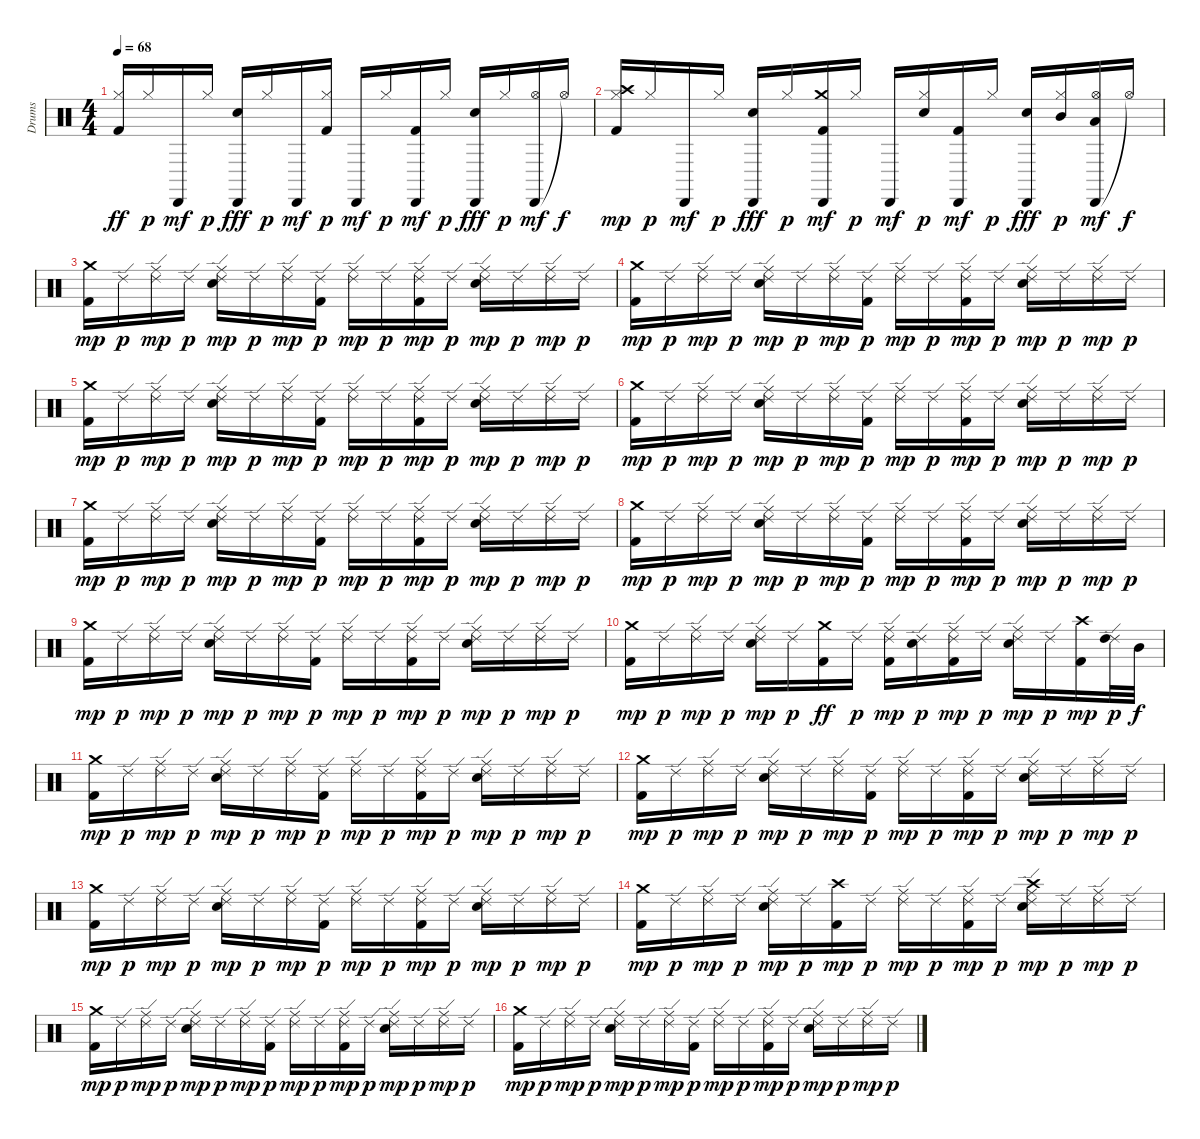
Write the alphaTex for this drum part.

\track ("Drums" "Drums") {instrument percussion}
\staff {score}
\articulation defaults
\ts (4 4)
\tempo 68
\clef neutral
\ks c
("Hi-Hat (closed)" "Kick (hit) 2").16{dy ff} "Hi-Hat (closed)".16{dy p} "Cabasa (hit)".16{dy mf} "Hi-Hat (closed)".16{dy p} ("Cabasa (hit)" "Snare (hit) 2").16{dy fff} "Hi-Hat (closed)".16{dy p} "Cabasa (hit)".16{dy mf} ("Hi-Hat (closed)" "Kick (hit) 2").16{dy p} "Cabasa (hit)".16{dy mf} "Hi-Hat (closed)".16{dy p} ("Cabasa (hit)" "Kick (hit) 2").16{dy mf} "Hi-Hat (closed)".16{dy p} ("Cabasa (hit)" "Snare (hit) 2").16{dy fff} "Hi-Hat (closed)".16{dy p} ("Cabasa (hit)" "Hi-Hat (open)").16{dy mf} "Hi-Hat (open)"{t}.16{dy f} |
("Hi-Hat (closed)" "Kick (hit) 2" "Crash high (hit)").16{dy mp} "Hi-Hat (closed)".16{dy p} "Cabasa (hit)".16{dy mf} "Hi-Hat (closed)".16{dy p} ("Cabasa (hit)" "Snare (hit) 2").16{dy fff} "Hi-Hat (closed)".16{dy p} ("Cabasa (hit)" "Kick (hit) 2" "Crash medium (hit)").16{dy mf} "Hi-Hat (closed)".16{dy p} "Cabasa (hit)".16{dy mf} ("Hi-Hat (closed)" "Snare (hit) 2").16{dy p} ("Cabasa (hit)" "Kick (hit) 2").16{dy mf} "Hi-Hat (closed)".16{dy p} ("Cabasa (hit)" "Snare (hit) 2").16{dy fff} ("Hi-Hat (closed)" "Mid Tom (hit)").16{dy p} ("Cabasa (hit)" "Hi-Hat (open)" "Low Tom (hit)").16{dy mf} "Hi-Hat (open)"{t}.16{dy f} |
("Kick (hit) 2" "Crash medium (hit)").16{dy mp} "Ride (edge) 2".16{dy p} ("Ride (middle)" "Ride (edge) 2").16{dy mp} "Ride (edge) 2".16{dy p} ("Ride (middle)" "Ride (edge) 2" "Snare (hit) 2").16{dy mp} "Ride (edge) 2".16{dy p} ("Ride (middle)" "Ride (edge) 2").16{dy mp} ("Ride (edge) 2" "Kick (hit) 2").16{dy p} ("Ride (middle)" "Ride (edge) 2").16{dy mp} "Ride (edge) 2".16{dy p} ("Ride (middle)" "Ride (edge) 2" "Kick (hit) 2").16{dy mp} "Ride (edge) 2".16{dy p} ("Ride (middle)" "Ride (edge) 2" "Snare (hit) 2").16{dy mp} "Ride (edge) 2".16{dy p} ("Ride (middle)" "Ride (edge) 2").16{dy mp} "Ride (edge) 2".16{dy p} |
("Kick (hit) 2" "Crash medium (hit)").16{dy mp} "Ride (edge) 2".16{dy p} ("Ride (middle)" "Ride (edge) 2").16{dy mp} "Ride (edge) 2".16{dy p} ("Ride (middle)" "Ride (edge) 2" "Snare (hit) 2").16{dy mp} "Ride (edge) 2".16{dy p} ("Ride (middle)" "Ride (edge) 2").16{dy mp} ("Ride (edge) 2" "Kick (hit) 2").16{dy p} ("Ride (middle)" "Ride (edge) 2").16{dy mp} "Ride (edge) 2".16{dy p} ("Ride (middle)" "Ride (edge) 2" "Kick (hit) 2").16{dy mp} "Ride (edge) 2".16{dy p} ("Ride (middle)" "Ride (edge) 2" "Snare (hit) 2").16{dy mp} "Ride (edge) 2".16{dy p} ("Ride (middle)" "Ride (edge) 2").16{dy mp} "Ride (edge) 2".16{dy p} |
("Kick (hit) 2" "Crash medium (hit)").16{dy mp} "Ride (edge) 2".16{dy p} ("Ride (middle)" "Ride (edge) 2").16{dy mp} "Ride (edge) 2".16{dy p} ("Ride (middle)" "Ride (edge) 2" "Snare (hit) 2").16{dy mp} "Ride (edge) 2".16{dy p} ("Ride (middle)" "Ride (edge) 2").16{dy mp} ("Ride (edge) 2" "Kick (hit) 2").16{dy p} ("Ride (middle)" "Ride (edge) 2").16{dy mp} "Ride (edge) 2".16{dy p} ("Ride (middle)" "Ride (edge) 2" "Kick (hit) 2").16{dy mp} "Ride (edge) 2".16{dy p} ("Ride (middle)" "Ride (edge) 2" "Snare (hit) 2").16{dy mp} "Ride (edge) 2".16{dy p} ("Ride (middle)" "Ride (edge) 2").16{dy mp} "Ride (edge) 2".16{dy p} |
("Kick (hit) 2" "Crash medium (hit)").16{dy mp} "Ride (edge) 2".16{dy p} ("Ride (middle)" "Ride (edge) 2").16{dy mp} "Ride (edge) 2".16{dy p} ("Ride (middle)" "Ride (edge) 2" "Snare (hit) 2").16{dy mp} "Ride (edge) 2".16{dy p} ("Ride (middle)" "Ride (edge) 2").16{dy mp} ("Ride (edge) 2" "Kick (hit) 2").16{dy p} ("Ride (middle)" "Ride (edge) 2").16{dy mp} "Ride (edge) 2".16{dy p} ("Ride (middle)" "Ride (edge) 2" "Kick (hit) 2").16{dy mp} "Ride (edge) 2".16{dy p} ("Ride (middle)" "Ride (edge) 2" "Snare (hit) 2").16{dy mp} "Ride (edge) 2".16{dy p} ("Ride (middle)" "Ride (edge) 2").16{dy mp} "Ride (edge) 2".16{dy p} |
("Kick (hit) 2" "Crash medium (hit)").16{dy mp} "Ride (edge) 2".16{dy p} ("Ride (middle)" "Ride (edge) 2").16{dy mp} "Ride (edge) 2".16{dy p} ("Ride (middle)" "Ride (edge) 2" "Snare (hit) 2").16{dy mp} "Ride (edge) 2".16{dy p} ("Ride (middle)" "Ride (edge) 2").16{dy mp} ("Ride (edge) 2" "Kick (hit) 2").16{dy p} ("Ride (middle)" "Ride (edge) 2").16{dy mp} "Ride (edge) 2".16{dy p} ("Ride (middle)" "Ride (edge) 2" "Kick (hit) 2").16{dy mp} "Ride (edge) 2".16{dy p} ("Ride (middle)" "Ride (edge) 2" "Snare (hit) 2").16{dy mp} "Ride (edge) 2".16{dy p} ("Ride (middle)" "Ride (edge) 2").16{dy mp} "Ride (edge) 2".16{dy p} |
("Kick (hit) 2" "Crash medium (hit)").16{dy mp} "Ride (edge) 2".16{dy p} ("Ride (middle)" "Ride (edge) 2").16{dy mp} "Ride (edge) 2".16{dy p} ("Ride (middle)" "Ride (edge) 2" "Snare (hit) 2").16{dy mp} "Ride (edge) 2".16{dy p} ("Ride (middle)" "Ride (edge) 2").16{dy mp} ("Ride (edge) 2" "Kick (hit) 2").16{dy p} ("Ride (middle)" "Ride (edge) 2").16{dy mp} "Ride (edge) 2".16{dy p} ("Ride (middle)" "Ride (edge) 2" "Kick (hit) 2").16{dy mp} "Ride (edge) 2".16{dy p} ("Ride (middle)" "Ride (edge) 2" "Snare (hit) 2").16{dy mp} "Ride (edge) 2".16{dy p} ("Ride (middle)" "Ride (edge) 2").16{dy mp} "Ride (edge) 2".16{dy p} |
("Kick (hit) 2" "Crash medium (hit)").16{dy mp} "Ride (edge) 2".16{dy p} ("Ride (middle)" "Ride (edge) 2").16{dy mp} "Ride (edge) 2".16{dy p} ("Ride (middle)" "Ride (edge) 2" "Snare (hit) 2").16{dy mp} "Ride (edge) 2".16{dy p} ("Ride (middle)" "Ride (edge) 2").16{dy mp} ("Ride (edge) 2" "Kick (hit) 2").16{dy p} ("Ride (middle)" "Ride (edge) 2").16{dy mp} "Ride (edge) 2".16{dy p} ("Ride (middle)" "Ride (edge) 2" "Kick (hit) 2").16{dy mp} "Ride (edge) 2".16{dy p} ("Ride (middle)" "Ride (edge) 2" "Snare (hit) 2").16{dy mp} "Ride (edge) 2".16{dy p} ("Ride (middle)" "Ride (edge) 2").16{dy mp} "Ride (edge) 2".16{dy p} |
("Kick (hit) 2" "Crash medium (hit)").16{dy mp} "Ride (edge) 2".16{dy p} ("Ride (middle)" "Ride (edge) 2").16{dy mp} "Ride (edge) 2".16{dy p} ("Ride (middle)" "Ride (edge) 2" "Snare (hit) 2").16{dy mp} "Ride (edge) 2".16{dy p} ("Crash medium (hit)" "Kick (hit) 2").16{dy ff} "Ride (edge) 2".16{dy p} ("Ride (middle)" "Ride (edge) 2" "Kick (hit) 2").16{dy mp} ("Ride (edge) 2" "Snare (hit) 2").16{dy p} ("Ride (middle)" "Ride (edge) 2" "Kick (hit) 2").16{dy mp} "Ride (edge) 2".16{dy p} ("Ride (middle)" "Ride (edge) 2" "Snare (hit) 2").16{dy mp} "Ride (edge) 2".16{dy p} ("Kick (hit) 2" "Crash high (hit)").16{dy mp} ("Ride (edge) 2" "High Tom (hit)").32{dy p} "Mid Tom (hit)".32{dy f} |
("Kick (hit) 2" "Crash medium (hit)").16{dy mp} "Ride (edge) 2".16{dy p} ("Ride (middle)" "Ride (edge) 2").16{dy mp} "Ride (edge) 2".16{dy p} ("Ride (middle)" "Ride (edge) 2" "Snare (hit) 2").16{dy mp} "Ride (edge) 2".16{dy p} ("Ride (middle)" "Ride (edge) 2").16{dy mp} ("Ride (edge) 2" "Kick (hit) 2").16{dy p} ("Ride (middle)" "Ride (edge) 2").16{dy mp} "Ride (edge) 2".16{dy p} ("Ride (middle)" "Ride (edge) 2" "Kick (hit) 2").16{dy mp} "Ride (edge) 2".16{dy p} ("Ride (middle)" "Ride (edge) 2" "Snare (hit) 2").16{dy mp} "Ride (edge) 2".16{dy p} ("Ride (middle)" "Ride (edge) 2").16{dy mp} "Ride (edge) 2".16{dy p} |
("Kick (hit) 2" "Crash medium (hit)").16{dy mp} "Ride (edge) 2".16{dy p} ("Ride (middle)" "Ride (edge) 2").16{dy mp} "Ride (edge) 2".16{dy p} ("Ride (middle)" "Ride (edge) 2" "Snare (hit) 2").16{dy mp} "Ride (edge) 2".16{dy p} ("Ride (middle)" "Ride (edge) 2").16{dy mp} ("Ride (edge) 2" "Kick (hit) 2").16{dy p} ("Ride (middle)" "Ride (edge) 2").16{dy mp} "Ride (edge) 2".16{dy p} ("Ride (middle)" "Ride (edge) 2" "Kick (hit) 2").16{dy mp} "Ride (edge) 2".16{dy p} ("Ride (middle)" "Ride (edge) 2" "Snare (hit) 2").16{dy mp} "Ride (edge) 2".16{dy p} ("Ride (middle)" "Ride (edge) 2").16{dy mp} "Ride (edge) 2".16{dy p} |
("Kick (hit) 2" "Crash medium (hit)").16{dy mp} "Ride (edge) 2".16{dy p} ("Ride (middle)" "Ride (edge) 2").16{dy mp} "Ride (edge) 2".16{dy p} ("Ride (middle)" "Ride (edge) 2" "Snare (hit) 2").16{dy mp} "Ride (edge) 2".16{dy p} ("Ride (middle)" "Ride (edge) 2").16{dy mp} ("Ride (edge) 2" "Kick (hit) 2").16{dy p} ("Ride (middle)" "Ride (edge) 2").16{dy mp} "Ride (edge) 2".16{dy p} ("Ride (middle)" "Ride (edge) 2" "Kick (hit) 2").16{dy mp} "Ride (edge) 2".16{dy p} ("Ride (middle)" "Ride (edge) 2" "Snare (hit) 2").16{dy mp} "Ride (edge) 2".16{dy p} ("Ride (middle)" "Ride (edge) 2").16{dy mp} "Ride (edge) 2".16{dy p} |
("Kick (hit) 2" "Crash medium (hit)").16{dy mp} "Ride (edge) 2".16{dy p} ("Ride (middle)" "Ride (edge) 2").16{dy mp} "Ride (edge) 2".16{dy p} ("Ride (middle)" "Ride (edge) 2" "Snare (hit) 2").16{dy mp} "Ride (edge) 2".16{dy p} ("Kick (hit) 2" "Crash high (hit)").16{dy mp} "Ride (edge) 2".16{dy p} ("Ride (middle)" "Ride (edge) 2").16{dy mp} "Ride (edge) 2".16{dy p} ("Ride (middle)" "Ride (edge) 2" "Kick (hit) 2").16{dy mp} "Ride (edge) 2".16{dy p} ("Ride (middle)" "Ride (edge) 2" "Snare (hit) 2" "Crash high (hit)").16{dy mp} "Ride (edge) 2".16{dy p} ("Ride (middle)" "Ride (edge) 2").16{dy mp} "Ride (edge) 2".16{dy p} |
("Kick (hit) 2" "Crash medium (hit)").16{dy mp} "Ride (edge) 2".16{dy p} ("Ride (middle)" "Ride (edge) 2").16{dy mp} "Ride (edge) 2".16{dy p} ("Ride (middle)" "Ride (edge) 2" "Snare (hit) 2").16{dy mp} "Ride (edge) 2".16{dy p} ("Ride (middle)" "Ride (edge) 2").16{dy mp} ("Ride (edge) 2" "Kick (hit) 2").16{dy p} ("Ride (middle)" "Ride (edge) 2").16{dy mp} "Ride (edge) 2".16{dy p} ("Ride (middle)" "Ride (edge) 2" "Kick (hit) 2").16{dy mp} "Ride (edge) 2".16{dy p} ("Ride (middle)" "Ride (edge) 2" "Snare (hit) 2").16{dy mp} "Ride (edge) 2".16{dy p} ("Ride (middle)" "Ride (edge) 2").16{dy mp} "Ride (edge) 2".16{dy p} |
("Kick (hit) 2" "Crash medium (hit)").16{dy mp} "Ride (edge) 2".16{dy p} ("Ride (middle)" "Ride (edge) 2").16{dy mp} "Ride (edge) 2".16{dy p} ("Ride (middle)" "Ride (edge) 2" "Snare (hit) 2").16{dy mp} "Ride (edge) 2".16{dy p} ("Ride (middle)" "Ride (edge) 2").16{dy mp} ("Ride (edge) 2" "Kick (hit) 2").16{dy p} ("Ride (middle)" "Ride (edge) 2").16{dy mp} "Ride (edge) 2".16{dy p} ("Ride (middle)" "Ride (edge) 2" "Kick (hit) 2").16{dy mp} "Ride (edge) 2".16{dy p} ("Ride (middle)" "Ride (edge) 2" "Snare (hit) 2").16{dy mp} "Ride (edge) 2".16{dy p} ("Ride (middle)" "Ride (edge) 2").16{dy mp} "Ride (edge) 2".16{dy p}
